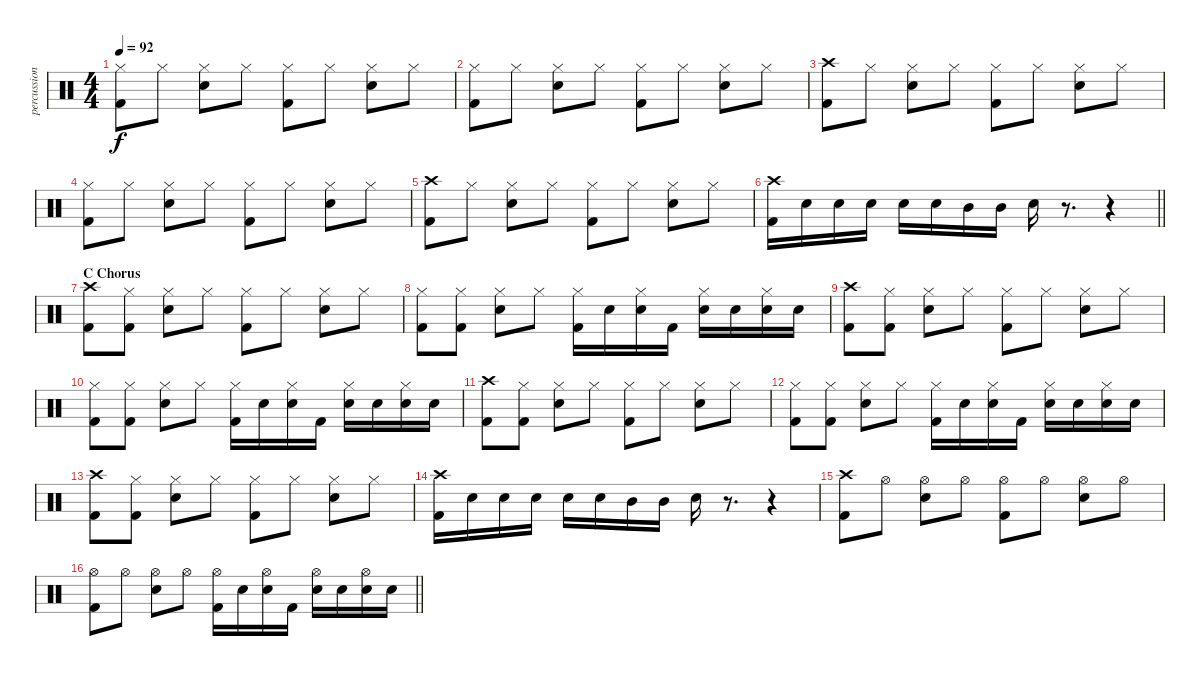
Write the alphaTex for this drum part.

\track ("percussion" "percussion") {instrument percussion}
\staff {score}
\articulation defaults
\ts (4 4)
\tempo 92
\clef neutral
\ks c
("Hi-Hat (closed)" "Kick (hit) 2").8{dy f} "Hi-Hat (closed)".8 ("Electric Snare (hit)" "Hi-Hat (closed)").8 "Hi-Hat (closed)".8 ("Hi-Hat (closed)" "Kick (hit) 2").8 "Hi-Hat (closed)".8 ("Electric Snare (hit)" "Hi-Hat (closed)").8 "Hi-Hat (closed)".8 |
("Hi-Hat (closed)" "Kick (hit) 2").8 "Hi-Hat (closed)".8 ("Electric Snare (hit)" "Hi-Hat (closed)").8 "Hi-Hat (closed)".8 ("Hi-Hat (closed)" "Kick (hit) 2").8 "Hi-Hat (closed)".8 ("Electric Snare (hit)" "Hi-Hat (closed)").8 "Hi-Hat (closed)".8 |
("Crash high (hit)" "Kick (hit) 2").8 "Hi-Hat (closed)".8 ("Electric Snare (hit)" "Hi-Hat (closed)").8 "Hi-Hat (closed)".8 ("Hi-Hat (closed)" "Kick (hit) 2").8 "Hi-Hat (closed)".8 ("Electric Snare (hit)" "Hi-Hat (closed)").8 "Hi-Hat (closed)".8 |
("Hi-Hat (closed)" "Kick (hit) 2").8 "Hi-Hat (closed)".8 ("Electric Snare (hit)" "Hi-Hat (closed)").8 "Hi-Hat (closed)".8 ("Hi-Hat (closed)" "Kick (hit) 2").8 "Hi-Hat (closed)".8 ("Electric Snare (hit)" "Hi-Hat (closed)").8 "Hi-Hat (closed)".8 |
("Crash high (hit)" "Kick (hit) 2").8 "Hi-Hat (closed)".8 ("Electric Snare (hit)" "Hi-Hat (closed)").8 "Hi-Hat (closed)".8 ("Hi-Hat (closed)" "Kick (hit) 2").8 "Hi-Hat (closed)".8 ("Electric Snare (hit)" "Hi-Hat (closed)").8 "Hi-Hat (closed)".8 |
\barLineRight lightlight
("Crash high (hit)" "Kick (hit) 2").16 "Electric Snare (hit)".16 "Electric Snare (hit)".16 "Electric Snare (hit)".16 "Electric Snare (hit)".16 "Electric Snare (hit)".16 "Mid Tom (hit)".16 "Mid Tom (hit)".16 "Electric Snare (hit)".16 r.8{d} r.4 |
\section ("" "C Chorus")
("Crash high (hit)" "Kick (hit) 2").8 ("Hi-Hat (closed)" "Kick (hit) 2").8 ("Electric Snare (hit)" "Hi-Hat (closed)").8 "Hi-Hat (closed)".8 ("Hi-Hat (closed)" "Kick (hit) 2").8 "Hi-Hat (closed)".8 ("Electric Snare (hit)" "Hi-Hat (closed)").8 "Hi-Hat (closed)".8 |
("Hi-Hat (closed)" "Kick (hit) 2").8 ("Hi-Hat (closed)" "Kick (hit) 2").8 ("Electric Snare (hit)" "Hi-Hat (closed)").8 "Hi-Hat (closed)".8 ("Hi-Hat (closed)" "Kick (hit) 2").16 "Electric Snare (hit)".16 ("Electric Snare (hit)" "Hi-Hat (closed)").16 "Kick (hit) 2".16 ("Electric Snare (hit)" "Hi-Hat (closed)").16 "Electric Snare (hit)".16 ("Electric Snare (hit)" "Hi-Hat (closed)").16 "Electric Snare (hit)".16 |
("Crash high (hit)" "Kick (hit) 2").8 ("Hi-Hat (closed)" "Kick (hit) 2").8 ("Electric Snare (hit)" "Hi-Hat (closed)").8 "Hi-Hat (closed)".8 ("Hi-Hat (closed)" "Kick (hit) 2").8 "Hi-Hat (closed)".8 ("Electric Snare (hit)" "Hi-Hat (closed)").8 "Hi-Hat (closed)".8 |
("Hi-Hat (closed)" "Kick (hit) 2").8 ("Hi-Hat (closed)" "Kick (hit) 2").8 ("Electric Snare (hit)" "Hi-Hat (closed)").8 "Hi-Hat (closed)".8 ("Hi-Hat (closed)" "Kick (hit) 2").16 "Electric Snare (hit)".16 ("Electric Snare (hit)" "Hi-Hat (closed)").16 "Kick (hit) 2".16 ("Electric Snare (hit)" "Hi-Hat (closed)").16 "Electric Snare (hit)".16 ("Electric Snare (hit)" "Hi-Hat (closed)").16 "Electric Snare (hit)".16 |
("Crash high (hit)" "Kick (hit) 2").8 ("Hi-Hat (closed)" "Kick (hit) 2").8 ("Electric Snare (hit)" "Hi-Hat (closed)").8 "Hi-Hat (closed)".8 ("Hi-Hat (closed)" "Kick (hit) 2").8 "Hi-Hat (closed)".8 ("Electric Snare (hit)" "Hi-Hat (closed)").8 "Hi-Hat (closed)".8 |
("Hi-Hat (closed)" "Kick (hit) 2").8 ("Hi-Hat (closed)" "Kick (hit) 2").8 ("Electric Snare (hit)" "Hi-Hat (closed)").8 "Hi-Hat (closed)".8 ("Hi-Hat (closed)" "Kick (hit) 2").16 "Electric Snare (hit)".16 ("Electric Snare (hit)" "Hi-Hat (closed)").16 "Kick (hit) 2".16 ("Electric Snare (hit)" "Hi-Hat (closed)").16 "Electric Snare (hit)".16 ("Electric Snare (hit)" "Hi-Hat (closed)").16 "Electric Snare (hit)".16 |
("Crash high (hit)" "Kick (hit) 2").8 ("Hi-Hat (closed)" "Kick (hit) 2").8 ("Electric Snare (hit)" "Hi-Hat (closed)").8 "Hi-Hat (closed)".8 ("Hi-Hat (closed)" "Kick (hit) 2").8 "Hi-Hat (closed)".8 ("Electric Snare (hit)" "Hi-Hat (closed)").8 "Hi-Hat (closed)".8 |
("Crash high (hit)" "Kick (hit) 2").16 "Electric Snare (hit)".16 "Electric Snare (hit)".16 "Electric Snare (hit)".16 "Electric Snare (hit)".16 "Electric Snare (hit)".16 "Mid Tom (hit)".16 "Mid Tom (hit)".16 "Electric Snare (hit)".16 r.8{d} r.4 |
("Crash high (hit)" "Kick (hit) 2").8 "Hi-Hat (open)".8 ("Electric Snare (hit)" "Hi-Hat (open)").8 "Hi-Hat (open)".8 ("Hi-Hat (open)" "Kick (hit) 2").8 "Hi-Hat (open)".8 ("Electric Snare (hit)" "Hi-Hat (open)").8 "Hi-Hat (open)".8 |
\barLineRight lightlight
("Hi-Hat (open)" "Kick (hit) 2").8 "Hi-Hat (open)".8 ("Electric Snare (hit)" "Hi-Hat (open)").8 "Hi-Hat (open)".8 ("Hi-Hat (open)" "Kick (hit) 2").16 "Electric Snare (hit)".16 ("Electric Snare (hit)" "Hi-Hat (open)").16 "Kick (hit) 2".16 ("Electric Snare (hit)" "Hi-Hat (open)").16 "Electric Snare (hit)".16 ("Electric Snare (hit)" "Hi-Hat (open)").16 "Electric Snare (hit)".16
